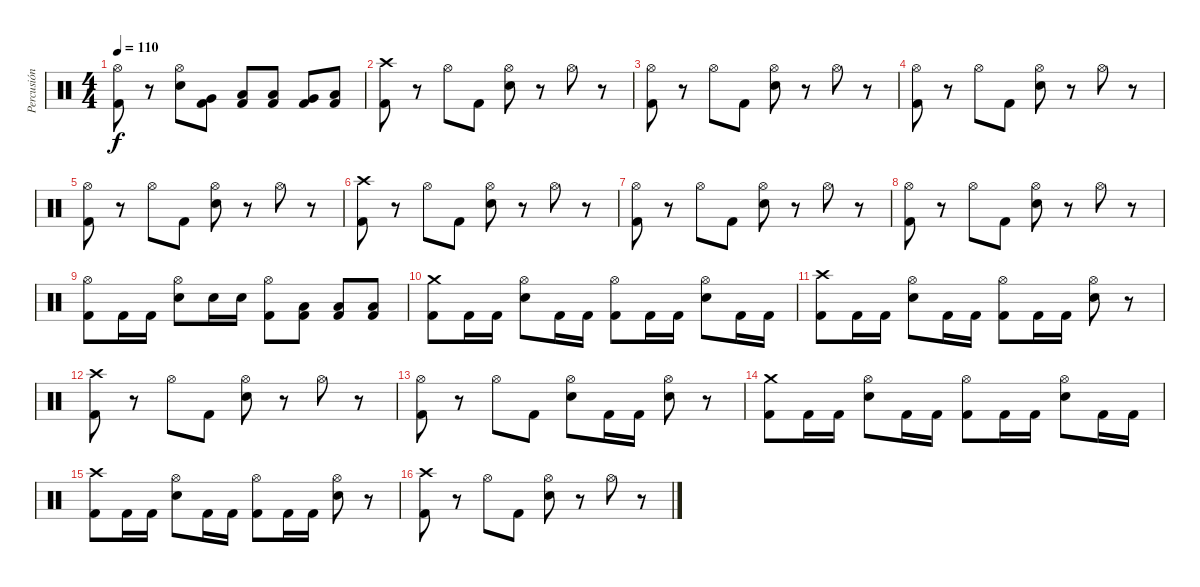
\track ("Percusión" "Percusión") {instrument percussion}
\staff {score}
\articulation defaults
\ts (4 4)
\tempo 110
\clef neutral
\ks c
("Hi-Hat (open)" "Kick (hit) 2").8{dy f} r.8 ("Hi-Hat (open)" "Electric Snare (hit)").8 ("Very Low Tom (hit)" "Kick (hit) 2").8 ("Low Floor Tom (hit)" "Kick (hit) 2").8 ("Low Tom (hit)" "Kick (hit) 2").8 ("Very Low Tom (hit)" "Kick (hit) 2").8 ("Low Floor Tom (hit)" "Kick (hit) 2").8 |
("Crash high (hit)" "Kick (hit) 2").8 r.8 "Hi-Hat (open)".8 "Kick (hit) 2".8 ("Hi-Hat (open)" "Electric Snare (hit)").8 r.8 "Hi-Hat (open)".8 r.8 |
("Hi-Hat (open)" "Kick (hit) 2").8 r.8 "Hi-Hat (open)".8 "Kick (hit) 2".8 ("Hi-Hat (open)" "Electric Snare (hit)").8 r.8 "Hi-Hat (open)".8 r.8 |
("Hi-Hat (open)" "Kick (hit) 2").8 r.8 "Hi-Hat (open)".8 "Kick (hit) 2".8 ("Hi-Hat (open)" "Electric Snare (hit)").8 r.8 "Hi-Hat (open)".8 r.8 |
("Hi-Hat (open)" "Kick (hit) 2").8 r.8 "Hi-Hat (open)".8 "Kick (hit) 2".8 ("Hi-Hat (open)" "Electric Snare (hit)").8 r.8 "Hi-Hat (open)".8 r.8 |
("Crash high (hit)" "Kick (hit) 2").8 r.8 "Hi-Hat (open)".8 "Kick (hit) 2".8 ("Hi-Hat (open)" "Electric Snare (hit)").8 r.8 "Hi-Hat (open)".8 r.8 |
("Hi-Hat (open)" "Kick (hit) 2").8 r.8 "Hi-Hat (open)".8 "Kick (hit) 2".8 ("Hi-Hat (open)" "Electric Snare (hit)").8 r.8 "Hi-Hat (open)".8 r.8 |
("Hi-Hat (open)" "Kick (hit) 2").8 r.8 "Hi-Hat (open)".8 "Kick (hit) 2".8 ("Hi-Hat (open)" "Electric Snare (hit)").8 r.8 "Hi-Hat (open)".8 r.8 |
("Hi-Hat (open)" "Kick (hit) 2").8 "Kick (hit) 2".16 "Kick (hit) 2".16 ("Hi-Hat (open)" "Electric Snare (hit)").8 "Electric Snare (hit)".16 "Electric Snare (hit)".16 ("Hi-Hat (open)" "Kick (hit) 2").8 ("Low Floor Tom (hit)" "Kick (hit) 2").8 ("Low Floor Tom (hit)" "Kick (hit) 2").8 ("Low Floor Tom (hit)" "Kick (hit) 2").8 |
("Crash medium (hit)" "Kick (hit) 2").8 "Kick (hit) 2".16 "Kick (hit) 2".16 ("Hi-Hat (open)" "Electric Snare (hit)").8 "Kick (hit) 2".16 "Kick (hit) 2".16 ("Hi-Hat (open)" "Kick (hit) 2").8 "Kick (hit) 2".16 "Kick (hit) 2".16 ("Hi-Hat (open)" "Electric Snare (hit)").8 "Kick (hit) 2".16 "Kick (hit) 2".16 |
("Crash high (hit)" "Kick (hit) 2").8 "Kick (hit) 2".16 "Kick (hit) 2".16 ("Hi-Hat (open)" "Electric Snare (hit)").8 "Kick (hit) 2".16 "Kick (hit) 2".16 ("Hi-Hat (open)" "Kick (hit) 2").8 "Kick (hit) 2".16 "Kick (hit) 2".16 ("Hi-Hat (open)" "Electric Snare (hit)").8 r.8 |
("Crash high (hit)" "Kick (hit) 2").8 r.8 "Hi-Hat (open)".8 "Kick (hit) 2".8 ("Hi-Hat (open)" "Electric Snare (hit)").8 r.8 "Hi-Hat (open)".8 r.8 |
("Hi-Hat (open)" "Kick (hit) 2").8 r.8 "Hi-Hat (open)".8 "Kick (hit) 2".8 ("Hi-Hat (open)" "Electric Snare (hit)").8 "Kick (hit) 2".16 "Kick (hit) 2".16 ("Hi-Hat (open)" "Electric Snare (hit)").8 r.8 |
("Crash medium (hit)" "Kick (hit) 2").8 "Kick (hit) 2".16 "Kick (hit) 2".16 ("Hi-Hat (open)" "Electric Snare (hit)").8 "Kick (hit) 2".16 "Kick (hit) 2".16 ("Hi-Hat (open)" "Kick (hit) 2").8 "Kick (hit) 2".16 "Kick (hit) 2".16 ("Hi-Hat (open)" "Electric Snare (hit)").8 "Kick (hit) 2".16 "Kick (hit) 2".16 |
("Crash high (hit)" "Kick (hit) 2").8 "Kick (hit) 2".16 "Kick (hit) 2".16 ("Hi-Hat (open)" "Electric Snare (hit)").8 "Kick (hit) 2".16 "Kick (hit) 2".16 ("Hi-Hat (open)" "Kick (hit) 2").8 "Kick (hit) 2".16 "Kick (hit) 2".16 ("Hi-Hat (open)" "Electric Snare (hit)").8 r.8 |
("Crash high (hit)" "Kick (hit) 2").8 r.8 "Hi-Hat (open)".8 "Kick (hit) 2".8 ("Hi-Hat (open)" "Electric Snare (hit)").8 r.8 "Hi-Hat (open)".8 r.8
